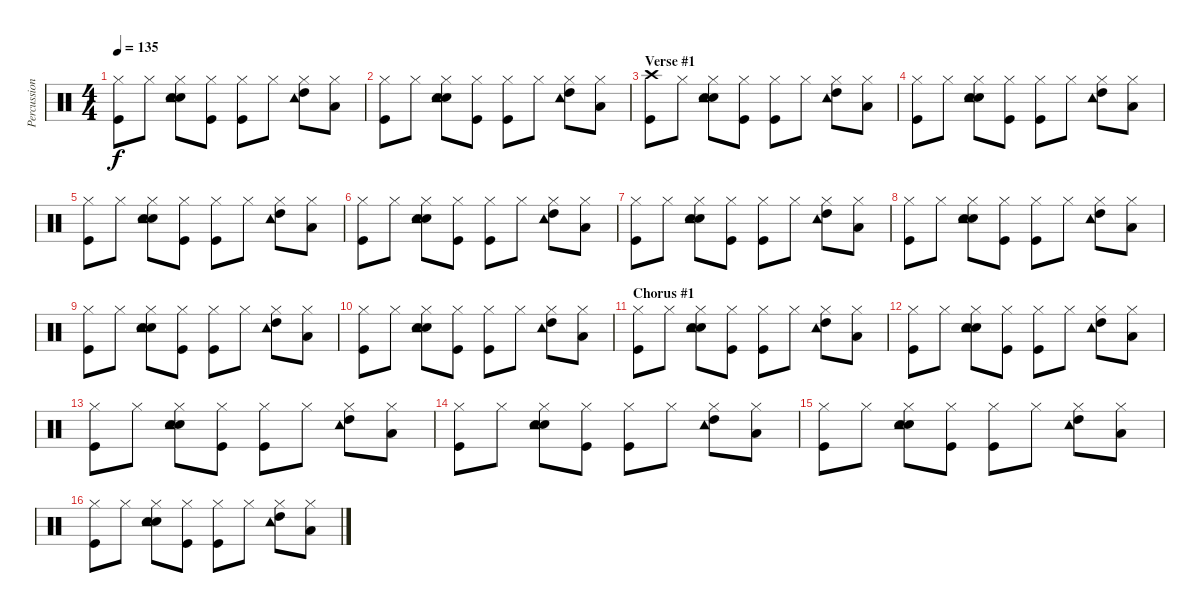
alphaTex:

\track ("Percussion" "Percussion") {instrument percussion}
\staff {score}
\articulation defaults
\ts (4 4)
\tempo 135
\clef neutral
\ks c
("Hi-Hat (closed)" "Kick (hit)").8{dy f} "Hi-Hat (closed)".8 ("Hi-Hat (closed)" "Electric Snare (hit)" "Tambourine (hit)" "Hand Clap (hit)").8 ("Hi-Hat (closed)" "Kick (hit)").8 ("Hi-Hat (closed)" "Kick (hit)").8 "Hi-Hat (closed)".8 ("Hi-Hat (closed)" "High Tom (hit)" "Tambourine (hit)").8 ("Hi-Hat (closed)" "Low Tom (hit)").8 |
("Hi-Hat (closed)" "Kick (hit)").8 "Hi-Hat (closed)".8 ("Hi-Hat (closed)" "Electric Snare (hit)" "Tambourine (hit)" "Hand Clap (hit)").8 ("Hi-Hat (closed)" "Kick (hit)").8 ("Hi-Hat (closed)" "Kick (hit)").8 "Hi-Hat (closed)".8 ("Hi-Hat (closed)" "High Tom (hit)" "Tambourine (hit)").8 ("Hi-Hat (closed)" "Low Tom (hit)").8 |
\section ("" "Verse #1")
("Crash high (hit)" "Kick (hit)").8 "Hi-Hat (closed)".8 ("Hi-Hat (closed)" "Electric Snare (hit)" "Tambourine (hit)" "Hand Clap (hit)").8 ("Hi-Hat (closed)" "Kick (hit)").8 ("Hi-Hat (closed)" "Kick (hit)").8 "Hi-Hat (closed)".8 ("Hi-Hat (closed)" "High Tom (hit)" "Tambourine (hit)").8 ("Hi-Hat (closed)" "Low Tom (hit)").8 |
("Hi-Hat (closed)" "Kick (hit)").8 "Hi-Hat (closed)".8 ("Hi-Hat (closed)" "Electric Snare (hit)" "Tambourine (hit)" "Hand Clap (hit)").8 ("Hi-Hat (closed)" "Kick (hit)").8 ("Hi-Hat (closed)" "Kick (hit)").8 "Hi-Hat (closed)".8 ("Hi-Hat (closed)" "High Tom (hit)" "Tambourine (hit)").8 ("Hi-Hat (closed)" "Low Tom (hit)").8 |
("Hi-Hat (closed)" "Kick (hit)").8 "Hi-Hat (closed)".8 ("Hi-Hat (closed)" "Electric Snare (hit)" "Tambourine (hit)" "Hand Clap (hit)").8 ("Hi-Hat (closed)" "Kick (hit)").8 ("Hi-Hat (closed)" "Kick (hit)").8 "Hi-Hat (closed)".8 ("Hi-Hat (closed)" "High Tom (hit)" "Tambourine (hit)").8 ("Hi-Hat (closed)" "Low Tom (hit)").8 |
("Hi-Hat (closed)" "Kick (hit)").8 "Hi-Hat (closed)".8 ("Hi-Hat (closed)" "Electric Snare (hit)" "Tambourine (hit)" "Hand Clap (hit)").8 ("Hi-Hat (closed)" "Kick (hit)").8 ("Hi-Hat (closed)" "Kick (hit)").8 "Hi-Hat (closed)".8 ("Hi-Hat (closed)" "High Tom (hit)" "Tambourine (hit)").8 ("Hi-Hat (closed)" "Low Tom (hit)").8 |
("Hi-Hat (closed)" "Kick (hit)").8 "Hi-Hat (closed)".8 ("Hi-Hat (closed)" "Electric Snare (hit)" "Tambourine (hit)" "Hand Clap (hit)").8 ("Hi-Hat (closed)" "Kick (hit)").8 ("Hi-Hat (closed)" "Kick (hit)").8 "Hi-Hat (closed)".8 ("Hi-Hat (closed)" "High Tom (hit)" "Tambourine (hit)").8 ("Hi-Hat (closed)" "Low Tom (hit)").8 |
("Hi-Hat (closed)" "Kick (hit)").8 "Hi-Hat (closed)".8 ("Hi-Hat (closed)" "Electric Snare (hit)" "Tambourine (hit)" "Hand Clap (hit)").8 ("Hi-Hat (closed)" "Kick (hit)").8 ("Hi-Hat (closed)" "Kick (hit)").8 "Hi-Hat (closed)".8 ("Hi-Hat (closed)" "High Tom (hit)" "Tambourine (hit)").8 ("Hi-Hat (closed)" "Low Tom (hit)").8 |
("Hi-Hat (closed)" "Kick (hit)").8 "Hi-Hat (closed)".8 ("Hi-Hat (closed)" "Electric Snare (hit)" "Tambourine (hit)" "Hand Clap (hit)").8 ("Hi-Hat (closed)" "Kick (hit)").8 ("Hi-Hat (closed)" "Kick (hit)").8 "Hi-Hat (closed)".8 ("Hi-Hat (closed)" "High Tom (hit)" "Tambourine (hit)").8 ("Hi-Hat (closed)" "Low Tom (hit)").8 |
("Hi-Hat (closed)" "Kick (hit)").8 "Hi-Hat (closed)".8 ("Hi-Hat (closed)" "Electric Snare (hit)" "Tambourine (hit)" "Hand Clap (hit)").8 ("Hi-Hat (closed)" "Kick (hit)").8 ("Hi-Hat (closed)" "Kick (hit)").8 "Hi-Hat (closed)".8 ("Hi-Hat (closed)" "High Tom (hit)" "Tambourine (hit)").8 ("Hi-Hat (closed)" "Low Tom (hit)").8 |
\section ("" "Chorus #1")
("Hi-Hat (closed)" "Kick (hit)").8 "Hi-Hat (closed)".8 ("Hi-Hat (closed)" "Electric Snare (hit)" "Tambourine (hit)" "Hand Clap (hit)").8 ("Hi-Hat (closed)" "Kick (hit)").8 ("Hi-Hat (closed)" "Kick (hit)").8 "Hi-Hat (closed)".8 ("Hi-Hat (closed)" "High Tom (hit)" "Tambourine (hit)").8 ("Hi-Hat (closed)" "Low Tom (hit)").8 |
("Hi-Hat (closed)" "Kick (hit)").8 "Hi-Hat (closed)".8 ("Hi-Hat (closed)" "Electric Snare (hit)" "Tambourine (hit)" "Hand Clap (hit)").8 ("Hi-Hat (closed)" "Kick (hit)").8 ("Hi-Hat (closed)" "Kick (hit)").8 "Hi-Hat (closed)".8 ("Hi-Hat (closed)" "High Tom (hit)" "Tambourine (hit)").8 ("Hi-Hat (closed)" "Low Tom (hit)").8 |
("Hi-Hat (closed)" "Kick (hit)").8 "Hi-Hat (closed)".8 ("Hi-Hat (closed)" "Electric Snare (hit)" "Tambourine (hit)" "Hand Clap (hit)").8 ("Hi-Hat (closed)" "Kick (hit)").8 ("Hi-Hat (closed)" "Kick (hit)").8 "Hi-Hat (closed)".8 ("Hi-Hat (closed)" "High Tom (hit)" "Tambourine (hit)").8 ("Hi-Hat (closed)" "Low Tom (hit)").8 |
("Hi-Hat (closed)" "Kick (hit)").8 "Hi-Hat (closed)".8 ("Hi-Hat (closed)" "Electric Snare (hit)" "Tambourine (hit)" "Hand Clap (hit)").8 ("Hi-Hat (closed)" "Kick (hit)").8 ("Hi-Hat (closed)" "Kick (hit)").8 "Hi-Hat (closed)".8 ("Hi-Hat (closed)" "High Tom (hit)" "Tambourine (hit)").8 ("Hi-Hat (closed)" "Low Tom (hit)").8 |
("Hi-Hat (closed)" "Kick (hit)").8 "Hi-Hat (closed)".8 ("Hi-Hat (closed)" "Electric Snare (hit)" "Tambourine (hit)" "Hand Clap (hit)").8 ("Hi-Hat (closed)" "Kick (hit)").8 ("Hi-Hat (closed)" "Kick (hit)").8 "Hi-Hat (closed)".8 ("Hi-Hat (closed)" "High Tom (hit)" "Tambourine (hit)").8 ("Hi-Hat (closed)" "Low Tom (hit)").8 |
("Hi-Hat (closed)" "Kick (hit)").8 "Hi-Hat (closed)".8 ("Hi-Hat (closed)" "Electric Snare (hit)" "Tambourine (hit)" "Hand Clap (hit)").8 ("Hi-Hat (closed)" "Kick (hit)").8 ("Hi-Hat (closed)" "Kick (hit)").8 "Hi-Hat (closed)".8 ("Hi-Hat (closed)" "High Tom (hit)" "Tambourine (hit)").8 ("Hi-Hat (closed)" "Low Tom (hit)").8
